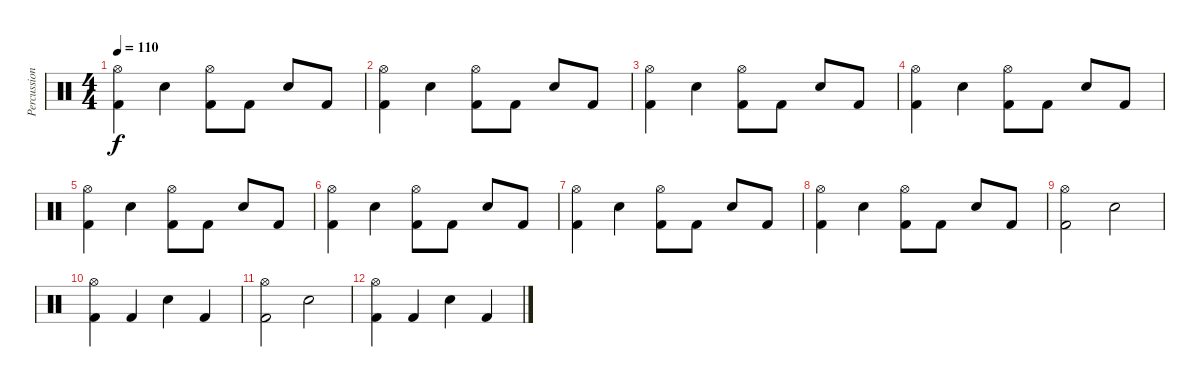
\track ("Percussions" "Percussion") {instrument percussion}
\staff {score}
\articulation defaults
\ts (4 4)
\tempo 110
\clef neutral
\ks c
("Hi-Hat (open)" "Kick (hit) 2").4{dy f} "Snare (hit) 2".4 ("Hi-Hat (open)" "Kick (hit) 2").8 "Kick (hit) 2".8 "Snare (hit) 2".8 "Kick (hit) 2".8 |
("Hi-Hat (open)" "Kick (hit) 2").4 "Snare (hit) 2".4 ("Hi-Hat (open)" "Kick (hit) 2").8 "Kick (hit) 2".8 "Snare (hit) 2".8 "Kick (hit) 2".8 |
("Hi-Hat (open)" "Kick (hit) 2").4 "Snare (hit) 2".4 ("Hi-Hat (open)" "Kick (hit) 2").8 "Kick (hit) 2".8 "Snare (hit) 2".8 "Kick (hit) 2".8 |
("Hi-Hat (open)" "Kick (hit) 2").4 "Snare (hit) 2".4 ("Hi-Hat (open)" "Kick (hit) 2").8 "Kick (hit) 2".8 "Snare (hit) 2".8 "Kick (hit) 2".8 |
("Hi-Hat (open)" "Kick (hit) 2").4 "Snare (hit) 2".4 ("Hi-Hat (open)" "Kick (hit) 2").8 "Kick (hit) 2".8 "Snare (hit) 2".8 "Kick (hit) 2".8 |
("Hi-Hat (open)" "Kick (hit) 2").4 "Snare (hit) 2".4 ("Hi-Hat (open)" "Kick (hit) 2").8 "Kick (hit) 2".8 "Snare (hit) 2".8 "Kick (hit) 2".8 |
("Hi-Hat (open)" "Kick (hit) 2").4 "Snare (hit) 2".4 ("Hi-Hat (open)" "Kick (hit) 2").8 "Kick (hit) 2".8 "Snare (hit) 2".8 "Kick (hit) 2".8 |
("Hi-Hat (open)" "Kick (hit) 2").4 "Snare (hit) 2".4 ("Hi-Hat (open)" "Kick (hit) 2").8 "Kick (hit) 2".8 "Snare (hit) 2".8 "Kick (hit) 2".8 |
("Hi-Hat (open)" "Kick (hit) 2").2 "Snare (hit) 2".2 |
("Hi-Hat (open)" "Kick (hit) 2").4 "Kick (hit) 2".4 "Snare (hit) 2".4 "Kick (hit) 2".4 |
("Hi-Hat (open)" "Kick (hit) 2").2 "Snare (hit) 2".2 |
("Hi-Hat (open)" "Kick (hit) 2").4 "Kick (hit) 2".4 "Snare (hit) 2".4 "Kick (hit) 2".4
